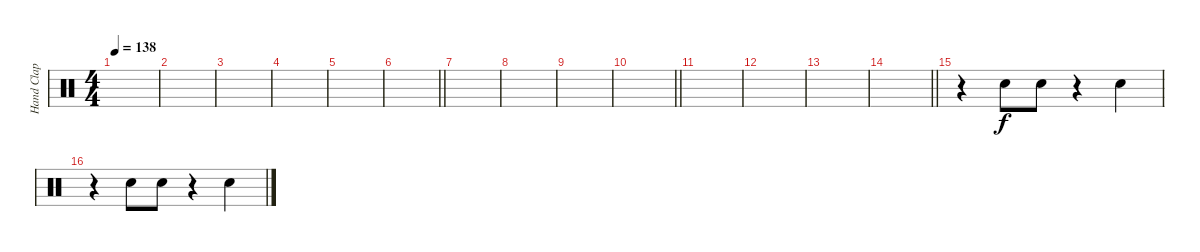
\track ("Hand Clap" "Hand Clap") {instrument percussion}
\staff {score}
\articulation defaults
\ts (4 4)
\tempo 138
\clef neutral
\ks c
|
|
|
|
|
\barLineRight lightlight
|
|
|
|
\barLineRight lightlight
|
|
|
|
\barLineRight lightlight
|
r.4 "Hand Clap (hit)".8 "Hand Clap (hit)".8 r.4 "Hand Clap (hit)".4 |
r.4 "Hand Clap (hit)".8 "Hand Clap (hit)".8 r.4 "Hand Clap (hit)".4
